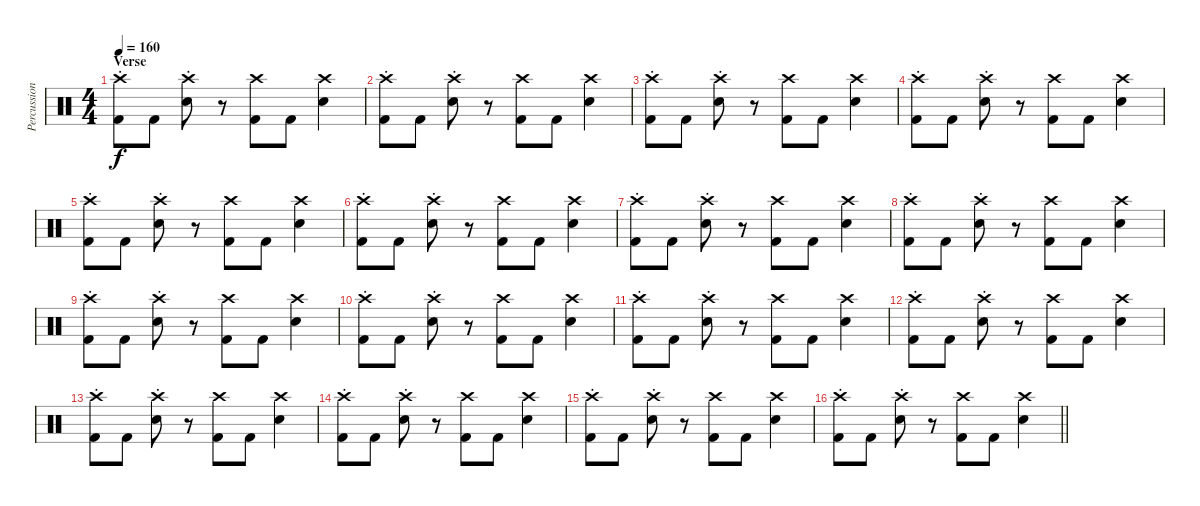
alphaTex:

\track ("Percussion" "Percussion") {instrument percussion}
\staff {score}
\articulation defaults
\ts (4 4)
\section ("" "Verse")
\tempo 160
\clef neutral
\ks c
("Crash high (hit)"{st} "Kick (hit) 2").8{dy f} "Kick (hit) 2".8 ("Crash high (hit)"{st} "Snare (hit) 2").8 r.8 ("Crash high (hit)" "Kick (hit) 2").8 "Kick (hit) 2".8 ("Crash high (hit)" "Snare (hit) 2").4 |
("Crash high (hit)"{st} "Kick (hit) 2").8 "Kick (hit) 2".8 ("Crash high (hit)"{st} "Snare (hit) 2").8 r.8 ("Crash high (hit)" "Kick (hit) 2").8 "Kick (hit) 2".8 ("Crash high (hit)" "Snare (hit) 2").4 |
("Crash high (hit)"{st} "Kick (hit) 2").8 "Kick (hit) 2".8 ("Crash high (hit)"{st} "Snare (hit) 2").8 r.8 ("Crash high (hit)" "Kick (hit) 2").8 "Kick (hit) 2".8 ("Crash high (hit)" "Snare (hit) 2").4 |
("Crash high (hit)"{st} "Kick (hit) 2").8 "Kick (hit) 2".8 ("Crash high (hit)"{st} "Snare (hit) 2").8 r.8 ("Crash high (hit)" "Kick (hit) 2").8 "Kick (hit) 2".8 ("Crash high (hit)" "Snare (hit) 2").4 |
("Crash high (hit)"{st} "Kick (hit) 2").8 "Kick (hit) 2".8 ("Crash high (hit)"{st} "Snare (hit) 2").8 r.8 ("Crash high (hit)" "Kick (hit) 2").8 "Kick (hit) 2".8 ("Crash high (hit)" "Snare (hit) 2").4 |
("Crash high (hit)"{st} "Kick (hit) 2").8 "Kick (hit) 2".8 ("Crash high (hit)"{st} "Snare (hit) 2").8 r.8 ("Crash high (hit)" "Kick (hit) 2").8 "Kick (hit) 2".8 ("Crash high (hit)" "Snare (hit) 2").4 |
("Crash high (hit)"{st} "Kick (hit) 2").8 "Kick (hit) 2".8 ("Crash high (hit)"{st} "Snare (hit) 2").8 r.8 ("Crash high (hit)" "Kick (hit) 2").8 "Kick (hit) 2".8 ("Crash high (hit)" "Snare (hit) 2").4 |
("Crash high (hit)"{st} "Kick (hit) 2").8 "Kick (hit) 2".8 ("Crash high (hit)"{st} "Snare (hit) 2").8 r.8 ("Crash high (hit)" "Kick (hit) 2").8 "Kick (hit) 2".8 ("Crash high (hit)" "Snare (hit) 2").4 |
("Crash high (hit)"{st} "Kick (hit) 2").8 "Kick (hit) 2".8 ("Crash high (hit)"{st} "Snare (hit) 2").8 r.8 ("Crash high (hit)" "Kick (hit) 2").8 "Kick (hit) 2".8 ("Crash high (hit)" "Snare (hit) 2").4 |
("Crash high (hit)"{st} "Kick (hit) 2").8 "Kick (hit) 2".8 ("Crash high (hit)"{st} "Snare (hit) 2").8 r.8 ("Crash high (hit)" "Kick (hit) 2").8 "Kick (hit) 2".8 ("Crash high (hit)" "Snare (hit) 2").4 |
("Crash high (hit)"{st} "Kick (hit) 2").8 "Kick (hit) 2".8 ("Crash high (hit)"{st} "Snare (hit) 2").8 r.8 ("Crash high (hit)" "Kick (hit) 2").8 "Kick (hit) 2".8 ("Crash high (hit)" "Snare (hit) 2").4 |
("Crash high (hit)"{st} "Kick (hit) 2").8 "Kick (hit) 2".8 ("Crash high (hit)"{st} "Snare (hit) 2").8 r.8 ("Crash high (hit)" "Kick (hit) 2").8 "Kick (hit) 2".8 ("Crash high (hit)" "Snare (hit) 2").4 |
("Crash high (hit)"{st} "Kick (hit) 2").8 "Kick (hit) 2".8 ("Crash high (hit)"{st} "Snare (hit) 2").8 r.8 ("Crash high (hit)" "Kick (hit) 2").8 "Kick (hit) 2".8 ("Crash high (hit)" "Snare (hit) 2").4 |
("Crash high (hit)"{st} "Kick (hit) 2").8 "Kick (hit) 2".8 ("Crash high (hit)"{st} "Snare (hit) 2").8 r.8 ("Crash high (hit)" "Kick (hit) 2").8 "Kick (hit) 2".8 ("Crash high (hit)" "Snare (hit) 2").4 |
("Crash high (hit)"{st} "Kick (hit) 2").8 "Kick (hit) 2".8 ("Crash high (hit)"{st} "Snare (hit) 2").8 r.8 ("Crash high (hit)" "Kick (hit) 2").8 "Kick (hit) 2".8 ("Crash high (hit)" "Snare (hit) 2").4 |
\barLineRight lightlight
("Crash high (hit)"{st} "Kick (hit) 2").8 "Kick (hit) 2".8 ("Crash high (hit)"{st} "Snare (hit) 2").8 r.8 ("Crash high (hit)" "Kick (hit) 2").8 "Kick (hit) 2".8 ("Crash high (hit)" "Snare (hit) 2").4
